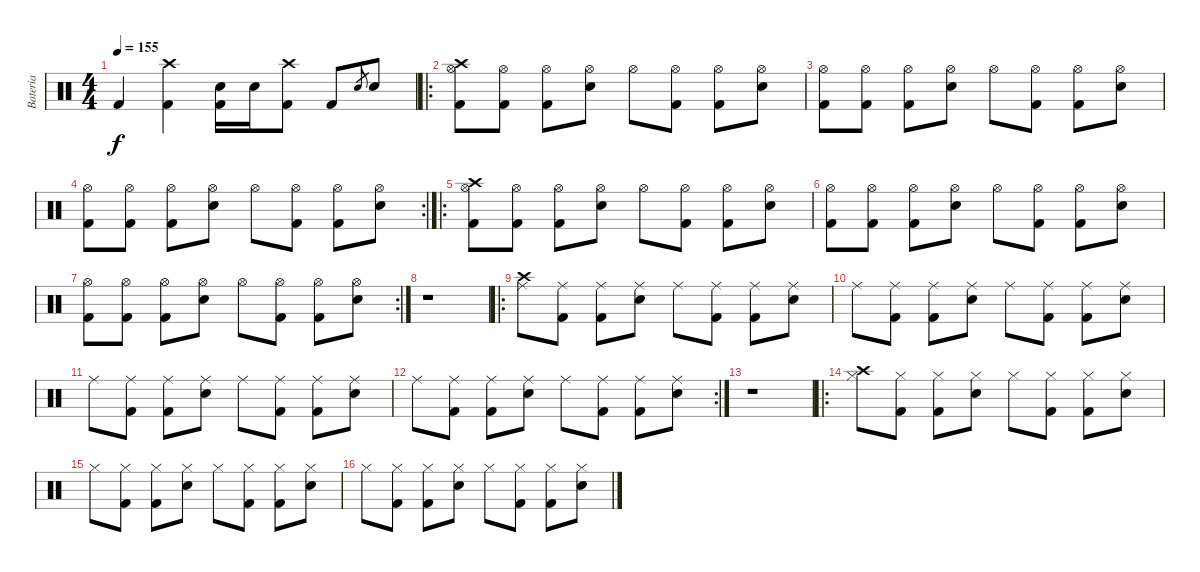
\track ("Bateria" "Bateria") {instrument percussion}
\staff {score}
\articulation defaults
\ts (4 4)
\tempo 155
\clef neutral
\ks c "Kick (hit) 2".4{dy f}
("Crash high (hit)" "Kick (hit) 2").4 ("Snare (hit) 2" "Kick (hit) 2").16 "Snare (hit) 2".16 ("Crash high (hit)" "Kick (hit) 2").8 "Kick (hit) 2".8 "Snare (hit) 2".8{gr} "Snare (hit) 2".8 |
\ro
("Crash high (hit)" "Hi-Hat (open)" "Kick (hit) 2").8 ("Hi-Hat (open)" "Kick (hit) 2").8 ("Hi-Hat (open)" "Kick (hit) 2").8 ("Snare (hit) 2" "Hi-Hat (open)").8 "Hi-Hat (open)".8 ("Hi-Hat (open)" "Kick (hit) 2").8 ("Hi-Hat (open)" "Kick (hit) 2").8 ("Snare (hit) 2" "Hi-Hat (open)").8 |
("Hi-Hat (open)" "Kick (hit) 2").8 ("Hi-Hat (open)" "Kick (hit) 2").8 ("Hi-Hat (open)" "Kick (hit) 2").8 ("Snare (hit) 2" "Hi-Hat (open)").8 "Hi-Hat (open)".8 ("Hi-Hat (open)" "Kick (hit) 2").8 ("Hi-Hat (open)" "Kick (hit) 2").8 ("Snare (hit) 2" "Hi-Hat (open)").8 |
\rc 2
("Hi-Hat (open)" "Kick (hit) 2").8 ("Hi-Hat (open)" "Kick (hit) 2").8 ("Hi-Hat (open)" "Kick (hit) 2").8 ("Snare (hit) 2" "Hi-Hat (open)").8 "Hi-Hat (open)".8 ("Hi-Hat (open)" "Kick (hit) 2").8 ("Hi-Hat (open)" "Kick (hit) 2").8 ("Snare (hit) 2" "Hi-Hat (open)").8 |
\ro
("Crash high (hit)" "Hi-Hat (open)" "Kick (hit) 2").8 ("Hi-Hat (open)" "Kick (hit) 2").8 ("Hi-Hat (open)" "Kick (hit) 2").8 ("Snare (hit) 2" "Hi-Hat (open)").8 "Hi-Hat (open)".8 ("Hi-Hat (open)" "Kick (hit) 2").8 ("Hi-Hat (open)" "Kick (hit) 2").8 ("Snare (hit) 2" "Hi-Hat (open)").8 |
("Hi-Hat (open)" "Kick (hit) 2").8 ("Hi-Hat (open)" "Kick (hit) 2").8 ("Hi-Hat (open)" "Kick (hit) 2").8 ("Snare (hit) 2" "Hi-Hat (open)").8 "Hi-Hat (open)".8 ("Hi-Hat (open)" "Kick (hit) 2").8 ("Hi-Hat (open)" "Kick (hit) 2").8 ("Snare (hit) 2" "Hi-Hat (open)").8 |
\rc 2
("Hi-Hat (open)" "Kick (hit) 2").8 ("Hi-Hat (open)" "Kick (hit) 2").8 ("Hi-Hat (open)" "Kick (hit) 2").8 ("Snare (hit) 2" "Hi-Hat (open)").8 "Hi-Hat (open)".8 ("Hi-Hat (open)" "Kick (hit) 2").8 ("Hi-Hat (open)" "Kick (hit) 2").8 ("Snare (hit) 2" "Hi-Hat (open)").8 |
r.1 |
\ro
("Crash high (hit)" "Ride (middle)").8 ("Ride (middle)" "Kick (hit) 2").8 ("Ride (middle)" "Kick (hit) 2").8 ("Snare (hit) 2" "Ride (middle)").8 "Ride (middle)".8 ("Ride (middle)" "Kick (hit) 2").8 ("Ride (middle)" "Kick (hit) 2").8 ("Snare (hit) 2" "Ride (middle)").8 |
"Ride (middle)".8 ("Ride (middle)" "Kick (hit) 2").8 ("Ride (middle)" "Kick (hit) 2").8 ("Snare (hit) 2" "Ride (middle)").8 "Ride (middle)".8 ("Ride (middle)" "Kick (hit) 2").8 ("Ride (middle)" "Kick (hit) 2").8 ("Snare (hit) 2" "Ride (middle)").8 |
"Ride (middle)".8 ("Ride (middle)" "Kick (hit) 2").8 ("Ride (middle)" "Kick (hit) 2").8 ("Snare (hit) 2" "Ride (middle)").8 "Ride (middle)".8 ("Ride (middle)" "Kick (hit) 2").8 ("Ride (middle)" "Kick (hit) 2").8 ("Snare (hit) 2" "Ride (middle)").8 |
\rc 2 "Ride (middle)".8
("Ride (middle)" "Kick (hit) 2").8 ("Ride (middle)" "Kick (hit) 2").8 ("Snare (hit) 2" "Ride (middle)").8 "Ride (middle)".8 ("Ride (middle)" "Kick (hit) 2").8 ("Ride (middle)" "Kick (hit) 2").8 ("Snare (hit) 2" "Ride (middle)").8 |
r.1 |
\ro
("Crash high (hit)" "Hi-Hat (closed)").8 ("Hi-Hat (closed)" "Kick (hit) 2").8 ("Hi-Hat (closed)" "Kick (hit) 2").8 ("Snare (hit) 2" "Hi-Hat (closed)").8 "Hi-Hat (closed)".8 ("Hi-Hat (closed)" "Kick (hit) 2").8 ("Hi-Hat (closed)" "Kick (hit) 2").8 ("Snare (hit) 2" "Hi-Hat (closed)").8 |
"Hi-Hat (closed)".8 ("Hi-Hat (closed)" "Kick (hit) 2").8 ("Hi-Hat (closed)" "Kick (hit) 2").8 ("Snare (hit) 2" "Hi-Hat (closed)").8 "Hi-Hat (closed)".8 ("Hi-Hat (closed)" "Kick (hit) 2").8 ("Hi-Hat (closed)" "Kick (hit) 2").8 ("Snare (hit) 2" "Hi-Hat (closed)").8 |
"Hi-Hat (closed)".8 ("Hi-Hat (closed)" "Kick (hit) 2").8 ("Hi-Hat (closed)" "Kick (hit) 2").8 ("Snare (hit) 2" "Hi-Hat (closed)").8 "Hi-Hat (closed)".8 ("Hi-Hat (closed)" "Kick (hit) 2").8 ("Hi-Hat (closed)" "Kick (hit) 2").8 ("Snare (hit) 2" "Hi-Hat (closed)").8
